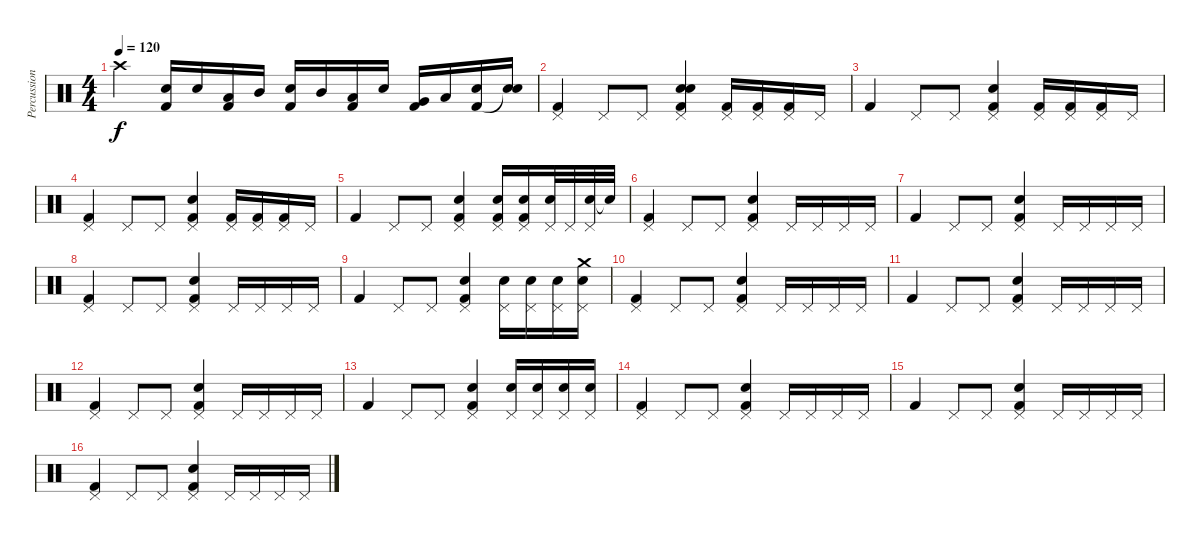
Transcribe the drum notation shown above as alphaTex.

\track ("Percussion" "Percussion") {instrument percussion}
\staff {score}
\articulation defaults
\ts (4 4)
\tempo 120
\clef neutral
\ks c "Crash high (hit)".4{dy f}
("Electric Snare (hit)" "Kick (hit) 2").16 "Electric Snare (hit)".16 ("Low Tom (hit)" "Kick (hit) 2").16 "Mid Tom (hit)".16 ("Electric Snare (hit)" "Kick (hit) 2").16 "Mid Tom (hit)".16 ("Low Tom (hit)" "Kick (hit) 2").16 "Electric Snare (hit)".16 ("Very Low Tom (hit)" "Kick (hit) 2").16 "Low Tom (hit)".16 ("Electric Snare (hit)" "Kick (hit) 2").16 ("Electric Snare (hit)" "Snare (hit)"{t}).16 |
("Kick (hit) 2" "Pedal Hi-Hat (hit)").4 "Pedal Hi-Hat (hit)".8 "Pedal Hi-Hat (hit)".8 ("Electric Snare (hit)" "Kick (hit) 2" "Pedal Hi-Hat (hit)" "Snare (hit) 2").4 ("Pedal Hi-Hat (hit)" "Kick (hit) 2").16 ("Pedal Hi-Hat (hit)" "Kick (hit) 2").16 ("Pedal Hi-Hat (hit)" "Kick (hit) 2").16 "Pedal Hi-Hat (hit)".16 |
"Kick (hit) 2".4 "Pedal Hi-Hat (hit)".8 "Pedal Hi-Hat (hit)".8 ("Kick (hit) 2" "Pedal Hi-Hat (hit)" "Snare (hit) 2").4 ("Pedal Hi-Hat (hit)" "Kick (hit) 2").16 ("Pedal Hi-Hat (hit)" "Kick (hit) 2").16 ("Pedal Hi-Hat (hit)" "Kick (hit) 2").16 "Pedal Hi-Hat (hit)".16 |
("Pedal Hi-Hat (hit)" "Kick (hit) 2").4 "Pedal Hi-Hat (hit)".8 "Pedal Hi-Hat (hit)".8 ("Kick (hit) 2" "Pedal Hi-Hat (hit)" "Snare (hit) 2").4 ("Pedal Hi-Hat (hit)" "Kick (hit) 2").16 ("Pedal Hi-Hat (hit)" "Kick (hit) 2").16 ("Pedal Hi-Hat (hit)" "Kick (hit) 2").16 "Pedal Hi-Hat (hit)".16 |
"Kick (hit) 2".4 "Pedal Hi-Hat (hit)".8 "Pedal Hi-Hat (hit)".8 ("Kick (hit) 2" "Pedal Hi-Hat (hit)" "Snare (hit) 2").4 ("Snare (hit) 2" "Pedal Hi-Hat (hit)" "Kick (hit) 2").16 ("Snare (hit) 2" "Pedal Hi-Hat (hit)" "Kick (hit) 2").16 ("Snare (hit) 2" "Pedal Hi-Hat (hit)").32 "Pedal Hi-Hat (hit)".32 ("Snare (hit)" "Pedal Hi-Hat (hit)").32 "Snare (hit)"{t}.32 |
("Kick (hit) 2" "Pedal Hi-Hat (hit)").4 "Pedal Hi-Hat (hit)".8 "Pedal Hi-Hat (hit)".8 ("Kick (hit) 2" "Pedal Hi-Hat (hit)" "Snare (hit) 2").4 "Pedal Hi-Hat (hit)".16 "Pedal Hi-Hat (hit)".16 "Pedal Hi-Hat (hit)".16 "Pedal Hi-Hat (hit)".16 |
"Kick (hit) 2".4 "Pedal Hi-Hat (hit)".8 "Pedal Hi-Hat (hit)".8 ("Kick (hit) 2" "Pedal Hi-Hat (hit)" "Snare (hit) 2").4 "Pedal Hi-Hat (hit)".16 "Pedal Hi-Hat (hit)".16 "Pedal Hi-Hat (hit)".16 "Pedal Hi-Hat (hit)".16 |
("Pedal Hi-Hat (hit)" "Kick (hit) 2").4 "Pedal Hi-Hat (hit)".8 "Pedal Hi-Hat (hit)".8 ("Kick (hit) 2" "Pedal Hi-Hat (hit)" "Snare (hit) 2").4 "Pedal Hi-Hat (hit)".16 "Pedal Hi-Hat (hit)".16 "Pedal Hi-Hat (hit)".16 "Pedal Hi-Hat (hit)".16 |
"Kick (hit) 2".4 "Pedal Hi-Hat (hit)".8 "Pedal Hi-Hat (hit)".8 ("Kick (hit) 2" "Pedal Hi-Hat (hit)" "Snare (hit) 2").4 ("Snare (hit) 2" "Pedal Hi-Hat (hit)").16 ("Snare (hit) 2" "Pedal Hi-Hat (hit)").16 ("Snare (hit) 2" "Pedal Hi-Hat (hit)").16 ("Crash medium (hit)" "Snare (hit) 2" "Pedal Hi-Hat (hit)").16 |
("Kick (hit) 2" "Pedal Hi-Hat (hit)").4 "Pedal Hi-Hat (hit)".8 "Pedal Hi-Hat (hit)".8 ("Kick (hit) 2" "Pedal Hi-Hat (hit)" "Snare (hit) 2").4 "Pedal Hi-Hat (hit)".16 "Pedal Hi-Hat (hit)".16 "Pedal Hi-Hat (hit)".16 "Pedal Hi-Hat (hit)".16 |
"Kick (hit) 2".4 "Pedal Hi-Hat (hit)".8 "Pedal Hi-Hat (hit)".8 ("Kick (hit) 2" "Pedal Hi-Hat (hit)" "Snare (hit) 2").4 "Pedal Hi-Hat (hit)".16 "Pedal Hi-Hat (hit)".16 "Pedal Hi-Hat (hit)".16 "Pedal Hi-Hat (hit)".16 |
("Pedal Hi-Hat (hit)" "Kick (hit) 2").4 "Pedal Hi-Hat (hit)".8 "Pedal Hi-Hat (hit)".8 ("Kick (hit) 2" "Pedal Hi-Hat (hit)" "Snare (hit) 2").4 "Pedal Hi-Hat (hit)".16 "Pedal Hi-Hat (hit)".16 "Pedal Hi-Hat (hit)".16 "Pedal Hi-Hat (hit)".16 |
"Kick (hit) 2".4 "Pedal Hi-Hat (hit)".8 "Pedal Hi-Hat (hit)".8 ("Kick (hit) 2" "Pedal Hi-Hat (hit)" "Snare (hit) 2").4 ("Snare (hit) 2" "Pedal Hi-Hat (hit)").16 ("Snare (hit) 2" "Pedal Hi-Hat (hit)").16 ("Snare (hit) 2" "Pedal Hi-Hat (hit)").16 ("Snare (hit) 2" "Pedal Hi-Hat (hit)").16 |
("Kick (hit) 2" "Pedal Hi-Hat (hit)").4 "Pedal Hi-Hat (hit)".8 "Pedal Hi-Hat (hit)".8 ("Kick (hit) 2" "Pedal Hi-Hat (hit)" "Snare (hit) 2").4 "Pedal Hi-Hat (hit)".16 "Pedal Hi-Hat (hit)".16 "Pedal Hi-Hat (hit)".16 "Pedal Hi-Hat (hit)".16 |
"Kick (hit) 2".4 "Pedal Hi-Hat (hit)".8 "Pedal Hi-Hat (hit)".8 ("Kick (hit) 2" "Pedal Hi-Hat (hit)" "Snare (hit) 2").4 "Pedal Hi-Hat (hit)".16 "Pedal Hi-Hat (hit)".16 "Pedal Hi-Hat (hit)".16 "Pedal Hi-Hat (hit)".16 |
("Pedal Hi-Hat (hit)" "Kick (hit) 2").4 "Pedal Hi-Hat (hit)".8 "Pedal Hi-Hat (hit)".8 ("Kick (hit) 2" "Pedal Hi-Hat (hit)" "Snare (hit) 2").4 "Pedal Hi-Hat (hit)".16 "Pedal Hi-Hat (hit)".16 "Pedal Hi-Hat (hit)".16 "Pedal Hi-Hat (hit)".16
